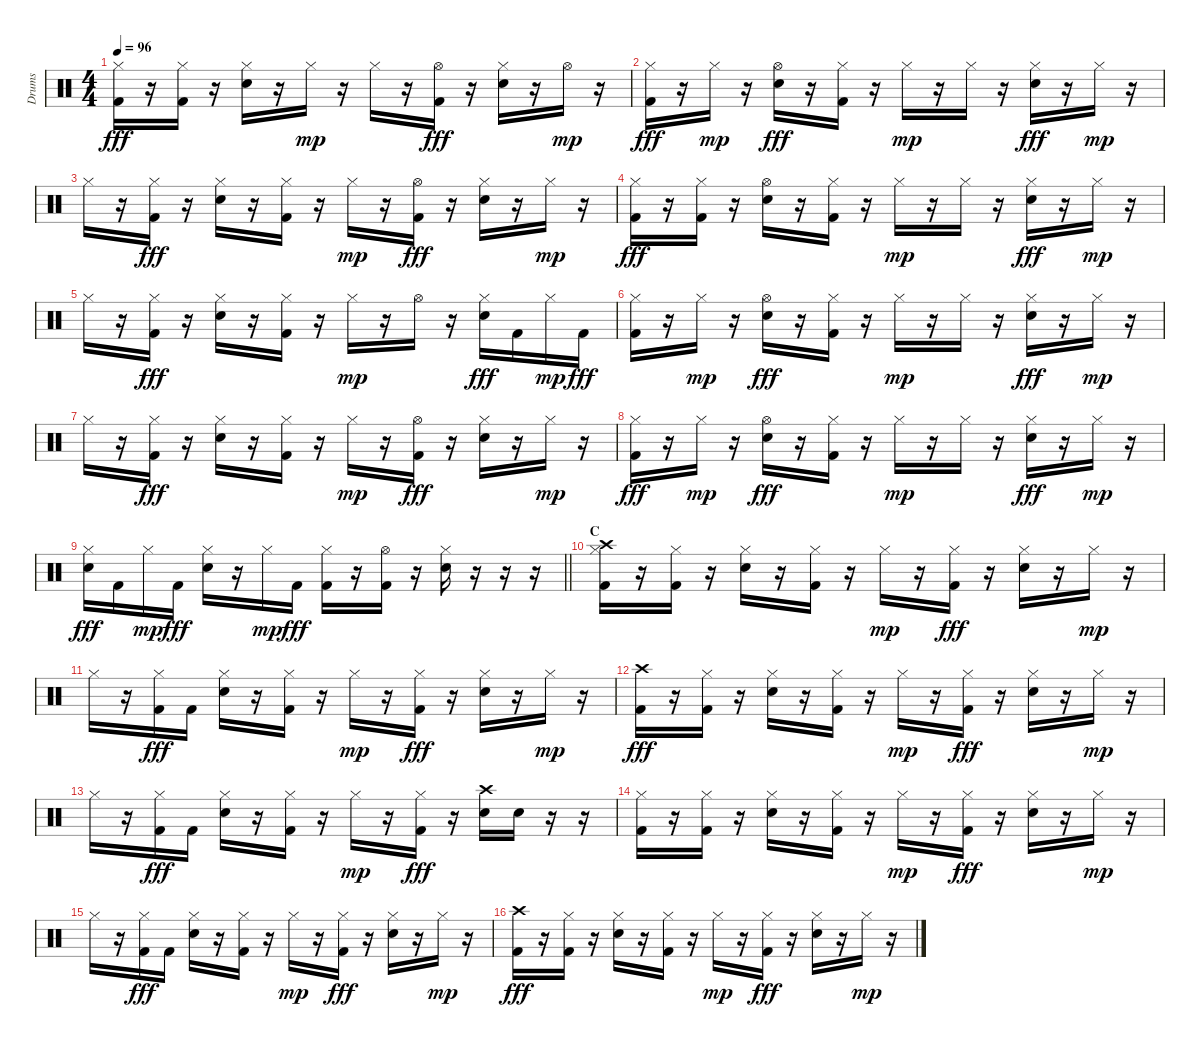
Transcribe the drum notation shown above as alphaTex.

\track ("Drums" "Drums") {instrument percussion}
\staff
\articulation defaults
\ts (4 4)
\tempo 96
\clef neutral
\ks c
("Hi-Hat (closed)" "Kick (hit) 2").16{dy fff} r.16 ("Hi-Hat (closed)" "Kick (hit) 2").16 r.16 ("Hi-Hat (closed)" "Electric Snare (hit)").16 r.16 "Hi-Hat (closed)".16{dy mp} r.16 "Hi-Hat (closed)".16 r.16 ("Hi-Hat (open)" "Kick (hit) 2").16{dy fff} r.16 ("Hi-Hat (closed)" "Electric Snare (hit)").16 r.16 "Hi-Hat (open)".16{dy mp} r.16 |
("Hi-Hat (closed)" "Kick (hit) 2").16{dy fff} r.16 "Hi-Hat (closed)".16{dy mp} r.16 ("Hi-Hat (open)" "Electric Snare (hit)").16{dy fff} r.16 ("Hi-Hat (closed)" "Kick (hit) 2").16 r.16 "Hi-Hat (closed)".16{dy mp} r.16 "Hi-Hat (closed)".16 r.16 ("Hi-Hat (closed)" "Electric Snare (hit)").16{dy fff} r.16 "Hi-Hat (closed)".16{dy mp} r.16 |
"Hi-Hat (closed)".16 r.16 ("Hi-Hat (closed)" "Kick (hit) 2").16{dy fff} r.16 ("Hi-Hat (closed)" "Electric Snare (hit)").16 r.16 ("Hi-Hat (closed)" "Kick (hit) 2").16 r.16 "Hi-Hat (closed)".16{dy mp} r.16 ("Hi-Hat (open)" "Kick (hit) 2").16{dy fff} r.16 ("Hi-Hat (closed)" "Electric Snare (hit)").16 r.16 "Hi-Hat (closed)".16{dy mp} r.16 |
("Hi-Hat (closed)" "Kick (hit) 2").16{dy fff} r.16 ("Hi-Hat (closed)" "Kick (hit) 2").16 r.16 ("Hi-Hat (open)" "Electric Snare (hit)").16 r.16 ("Hi-Hat (closed)" "Kick (hit) 2").16 r.16 "Hi-Hat (closed)".16{dy mp} r.16 "Hi-Hat (closed)".16 r.16 ("Hi-Hat (closed)" "Electric Snare (hit)").16{dy fff} r.16 "Hi-Hat (closed)".16{dy mp} r.16 |
"Hi-Hat (closed)".16 r.16 ("Hi-Hat (closed)" "Kick (hit) 2").16{dy fff} r.16 ("Hi-Hat (closed)" "Electric Snare (hit)").16 r.16 ("Hi-Hat (closed)" "Kick (hit) 2").16 r.16 "Hi-Hat (closed)".16{dy mp} r.16 "Hi-Hat (open)".16 r.16 ("Hi-Hat (closed)" "Electric Snare (hit)").16{dy fff} "Kick (hit) 2".16 "Hi-Hat (closed)".16{dy mp} "Kick (hit) 2".16{dy fff} |
("Hi-Hat (closed)" "Kick (hit) 2").16 r.16 "Hi-Hat (closed)".16{dy mp} r.16 ("Hi-Hat (open)" "Electric Snare (hit)").16{dy fff} r.16 ("Hi-Hat (closed)" "Kick (hit) 2").16 r.16 "Hi-Hat (closed)".16{dy mp} r.16 "Hi-Hat (closed)".16 r.16 ("Hi-Hat (closed)" "Electric Snare (hit)").16{dy fff} r.16 "Hi-Hat (closed)".16{dy mp} r.16 |
"Hi-Hat (closed)".16 r.16 ("Hi-Hat (closed)" "Kick (hit) 2").16{dy fff} r.16 ("Hi-Hat (closed)" "Electric Snare (hit)").16 r.16 ("Hi-Hat (closed)" "Kick (hit) 2").16 r.16 "Hi-Hat (closed)".16{dy mp} r.16 ("Hi-Hat (open)" "Kick (hit) 2").16{dy fff} r.16 ("Hi-Hat (closed)" "Electric Snare (hit)").16 r.16 "Hi-Hat (closed)".16{dy mp} r.16 |
("Hi-Hat (closed)" "Kick (hit) 2").16{dy fff} r.16 "Hi-Hat (closed)".16{dy mp} r.16 ("Hi-Hat (open)" "Electric Snare (hit)").16{dy fff} r.16 ("Hi-Hat (closed)" "Kick (hit) 2").16 r.16 "Hi-Hat (closed)".16{dy mp} r.16 "Hi-Hat (closed)".16 r.16 ("Hi-Hat (closed)" "Electric Snare (hit)").16{dy fff} r.16 "Hi-Hat (closed)".16{dy mp} r.16 |
\barLineRight lightlight
("Hi-Hat (closed)" "Electric Snare (hit)").16{dy fff} "Kick (hit) 2".16 "Hi-Hat (closed)".16{dy mp} "Kick (hit) 2".16{dy fff} ("Hi-Hat (closed)" "Electric Snare (hit)").16 r.16 "Hi-Hat (closed)".16{dy mp} "Kick (hit) 2".16{dy fff} ("Hi-Hat (closed)" "Kick (hit) 2").16 r.16 ("Hi-Hat (open)" "Kick (hit) 2").16 r.16 ("Hi-Hat (closed)" "Electric Snare (hit)").16 r.16 r.16 r.16 |
\section ("" "C")
("Hi-Hat (closed)" "Crash high (hit)" "Kick (hit) 2").16 r.16 ("Hi-Hat (closed)" "Kick (hit) 2").16 r.16 ("Hi-Hat (closed)" "Electric Snare (hit)").16 r.16 ("Hi-Hat (closed)" "Kick (hit) 2").16 r.16 "Hi-Hat (closed)".16{dy mp} r.16 ("Hi-Hat (closed)" "Kick (hit) 2").16{dy fff} r.16 ("Hi-Hat (closed)" "Electric Snare (hit)").16 r.16 "Hi-Hat (closed)".16{dy mp} r.16 |
"Hi-Hat (closed)".16 r.16 ("Hi-Hat (closed)" "Kick (hit) 2").16{dy fff} "Kick (hit) 2".16 ("Hi-Hat (closed)" "Electric Snare (hit)").16 r.16 ("Hi-Hat (closed)" "Kick (hit) 2").16 r.16 "Hi-Hat (closed)".16{dy mp} r.16 ("Hi-Hat (closed)" "Kick (hit) 2").16{dy fff} r.16 ("Hi-Hat (closed)" "Electric Snare (hit)").16 r.16 "Hi-Hat (closed)".16{dy mp} r.16 |
("Crash high (hit)" "Kick (hit) 2").16{dy fff} r.16 ("Hi-Hat (closed)" "Kick (hit) 2").16 r.16 ("Hi-Hat (closed)" "Electric Snare (hit)").16 r.16 ("Hi-Hat (closed)" "Kick (hit) 2").16 r.16 "Hi-Hat (closed)".16{dy mp} r.16 ("Hi-Hat (closed)" "Kick (hit) 2").16{dy fff} r.16 ("Hi-Hat (closed)" "Electric Snare (hit)").16 r.16 "Hi-Hat (closed)".16{dy mp} r.16 |
"Hi-Hat (closed)".16 r.16 ("Hi-Hat (closed)" "Kick (hit) 2").16{dy fff} "Kick (hit) 2".16 ("Hi-Hat (closed)" "Electric Snare (hit)").16 r.16 ("Hi-Hat (closed)" "Kick (hit) 2").16 r.16 "Hi-Hat (closed)".16{dy mp} r.16 ("Hi-Hat (closed)" "Kick (hit) 2").16{dy fff} r.16 ("Crash high (hit)" "Electric Snare (hit)").16 "Electric Snare (hit)".16 r.16 r.16 |
("Hi-Hat (closed)" "Kick (hit) 2").16 r.16 ("Hi-Hat (closed)" "Kick (hit) 2").16 r.16 ("Hi-Hat (closed)" "Electric Snare (hit)").16 r.16 ("Hi-Hat (closed)" "Kick (hit) 2").16 r.16 "Hi-Hat (closed)".16{dy mp} r.16 ("Hi-Hat (closed)" "Kick (hit) 2").16{dy fff} r.16 ("Hi-Hat (closed)" "Electric Snare (hit)").16 r.16 "Hi-Hat (closed)".16{dy mp} r.16 |
"Hi-Hat (closed)".16 r.16 ("Hi-Hat (closed)" "Kick (hit) 2").16{dy fff} "Kick (hit) 2".16 ("Hi-Hat (closed)" "Electric Snare (hit)").16 r.16 ("Hi-Hat (closed)" "Kick (hit) 2").16 r.16 "Hi-Hat (closed)".16{dy mp} r.16 ("Hi-Hat (closed)" "Kick (hit) 2").16{dy fff} r.16 ("Hi-Hat (closed)" "Electric Snare (hit)").16 r.16 "Hi-Hat (closed)".16{dy mp} r.16 |
("Crash high (hit)" "Kick (hit) 2").16{dy fff} r.16 ("Hi-Hat (closed)" "Kick (hit) 2").16 r.16 ("Hi-Hat (closed)" "Electric Snare (hit)").16 r.16 ("Hi-Hat (closed)" "Kick (hit) 2").16 r.16 "Hi-Hat (closed)".16{dy mp} r.16 ("Hi-Hat (closed)" "Kick (hit) 2").16{dy fff} r.16 ("Hi-Hat (closed)" "Electric Snare (hit)").16 r.16 "Hi-Hat (closed)".16{dy mp} r.16
